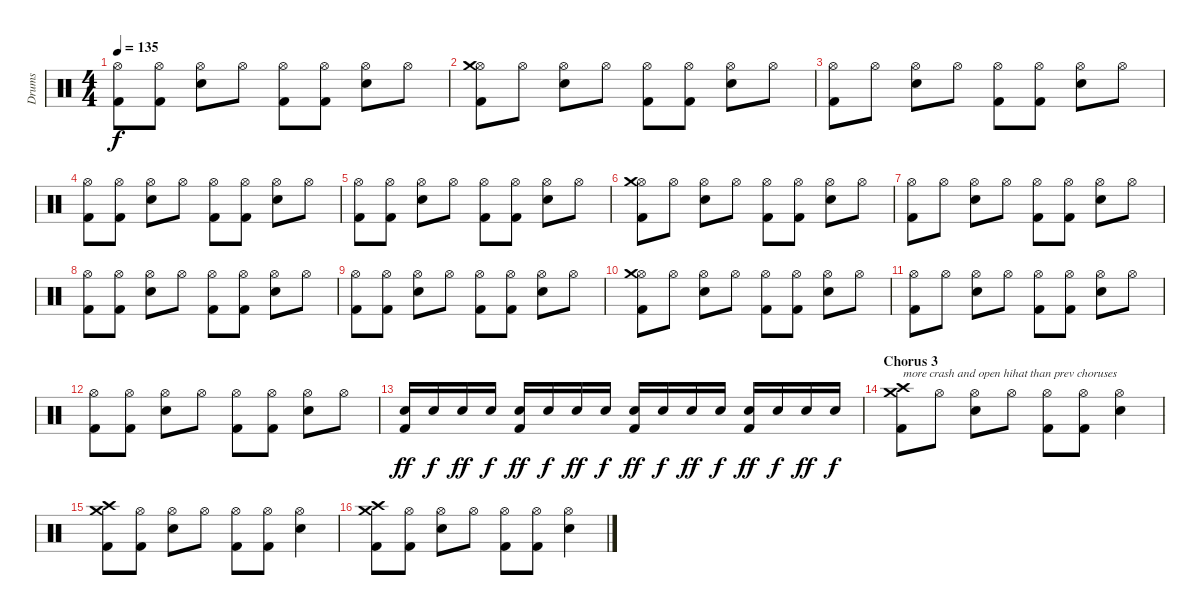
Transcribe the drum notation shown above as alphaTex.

\track ("Drums" "Drums") {instrument percussion}
\staff {score}
\articulation defaults
\ts (4 4)
\tempo 135
\clef neutral
\ks c
("Hi-Hat (open)" "Kick (hit) 2").8{dy f} ("Hi-Hat (open)" "Kick (hit) 2").8 ("Hi-Hat (open)" "Snare (hit) 2").8 "Hi-Hat (open)".8 ("Hi-Hat (open)" "Kick (hit) 2").8 ("Hi-Hat (open)" "Kick (hit) 2").8 ("Hi-Hat (open)" "Snare (hit) 2").8 "Hi-Hat (open)".8 |
("Hi-Hat (open)" "Crash medium (hit)" "Kick (hit) 2").8 "Hi-Hat (open)".8 ("Hi-Hat (open)" "Snare (hit) 2").8 "Hi-Hat (open)".8 ("Hi-Hat (open)" "Kick (hit) 2").8 ("Hi-Hat (open)" "Kick (hit) 2").8 ("Hi-Hat (open)" "Snare (hit) 2").8 "Hi-Hat (open)".8 |
("Hi-Hat (open)" "Kick (hit) 2").8 "Hi-Hat (open)".8 ("Hi-Hat (open)" "Snare (hit) 2").8 "Hi-Hat (open)".8 ("Hi-Hat (open)" "Kick (hit) 2").8 ("Hi-Hat (open)" "Kick (hit) 2").8 ("Hi-Hat (open)" "Snare (hit) 2").8 "Hi-Hat (open)".8 |
("Hi-Hat (open)" "Kick (hit) 2").8 ("Hi-Hat (open)" "Kick (hit) 2").8 ("Hi-Hat (open)" "Snare (hit) 2").8 "Hi-Hat (open)".8 ("Hi-Hat (open)" "Kick (hit) 2").8 ("Hi-Hat (open)" "Kick (hit) 2").8 ("Hi-Hat (open)" "Snare (hit) 2").8 "Hi-Hat (open)".8 |
("Hi-Hat (open)" "Kick (hit) 2").8 ("Hi-Hat (open)" "Kick (hit) 2").8 ("Hi-Hat (open)" "Snare (hit) 2").8 "Hi-Hat (open)".8 ("Hi-Hat (open)" "Kick (hit) 2").8 ("Hi-Hat (open)" "Kick (hit) 2").8 ("Hi-Hat (open)" "Snare (hit) 2").8 "Hi-Hat (open)".8 |
("Hi-Hat (open)" "Crash medium (hit)" "Kick (hit) 2").8 "Hi-Hat (open)".8 ("Hi-Hat (open)" "Snare (hit) 2").8 "Hi-Hat (open)".8 ("Hi-Hat (open)" "Kick (hit) 2").8 ("Hi-Hat (open)" "Kick (hit) 2").8 ("Hi-Hat (open)" "Snare (hit) 2").8 "Hi-Hat (open)".8 |
("Hi-Hat (open)" "Kick (hit) 2").8 "Hi-Hat (open)".8 ("Hi-Hat (open)" "Snare (hit) 2").8 "Hi-Hat (open)".8 ("Hi-Hat (open)" "Kick (hit) 2").8 ("Hi-Hat (open)" "Kick (hit) 2").8 ("Hi-Hat (open)" "Snare (hit) 2").8 "Hi-Hat (open)".8 |
("Hi-Hat (open)" "Kick (hit) 2").8 ("Hi-Hat (open)" "Kick (hit) 2").8 ("Hi-Hat (open)" "Snare (hit) 2").8 "Hi-Hat (open)".8 ("Hi-Hat (open)" "Kick (hit) 2").8 ("Hi-Hat (open)" "Kick (hit) 2").8 ("Hi-Hat (open)" "Snare (hit) 2").8 "Hi-Hat (open)".8 |
("Hi-Hat (open)" "Kick (hit) 2").8 ("Hi-Hat (open)" "Kick (hit) 2").8 ("Hi-Hat (open)" "Snare (hit) 2").8 "Hi-Hat (open)".8 ("Hi-Hat (open)" "Kick (hit) 2").8 ("Hi-Hat (open)" "Kick (hit) 2").8 ("Hi-Hat (open)" "Snare (hit) 2").8 "Hi-Hat (open)".8 |
("Hi-Hat (open)" "Crash medium (hit)" "Kick (hit) 2").8 "Hi-Hat (open)".8 ("Hi-Hat (open)" "Snare (hit) 2").8 "Hi-Hat (open)".8 ("Hi-Hat (open)" "Kick (hit) 2").8 ("Hi-Hat (open)" "Kick (hit) 2").8 ("Hi-Hat (open)" "Snare (hit) 2").8 "Hi-Hat (open)".8 |
("Hi-Hat (open)" "Kick (hit) 2").8 "Hi-Hat (open)".8 ("Hi-Hat (open)" "Snare (hit) 2").8 "Hi-Hat (open)".8 ("Hi-Hat (open)" "Kick (hit) 2").8 ("Hi-Hat (open)" "Kick (hit) 2").8 ("Hi-Hat (open)" "Snare (hit) 2").8 "Hi-Hat (open)".8 |
("Hi-Hat (open)" "Kick (hit) 2").8 ("Hi-Hat (open)" "Kick (hit) 2").8 ("Hi-Hat (open)" "Snare (hit) 2").8 "Hi-Hat (open)".8 ("Hi-Hat (open)" "Kick (hit) 2").8 ("Hi-Hat (open)" "Kick (hit) 2").8 ("Hi-Hat (open)" "Snare (hit) 2").8 "Hi-Hat (open)".8 |
("Snare (hit) 2" "Kick (hit) 2").16{dy ff} "Snare (hit) 2".16{dy f} "Snare (hit) 2".16{dy ff} "Snare (hit) 2".16{dy f} ("Snare (hit) 2" "Kick (hit) 2").16{dy ff} "Snare (hit) 2".16{dy f} "Snare (hit) 2".16{dy ff} "Snare (hit) 2".16{dy f} ("Snare (hit) 2" "Kick (hit) 2").16{dy ff} "Snare (hit) 2".16{dy f} "Snare (hit) 2".16{dy ff} "Snare (hit) 2".16{dy f} ("Snare (hit) 2" "Kick (hit) 2").16{dy ff} "Snare (hit) 2".16{dy f} "Snare (hit) 2".16{dy ff} "Snare (hit) 2".16{dy f} |
\section ("" "Chorus 3 ")
("Crash medium (hit)" "Crash high (hit)" "Kick (hit) 2").8{txt "more crash and open hihat than prev choruses"} "Hi-Hat (open)".8 ("Hi-Hat (open)" "Snare (hit) 2").8 "Hi-Hat (open)".8 ("Hi-Hat (open)" "Kick (hit) 2").8 ("Hi-Hat (open)" "Kick (hit) 2").8 ("Hi-Hat (open)" "Snare (hit) 2").4 |
("Crash high (hit)" "Crash medium (hit)" "Kick (hit) 2").8 ("Hi-Hat (open)" "Kick (hit) 2").8 ("Hi-Hat (open)" "Snare (hit) 2").8 "Hi-Hat (open)".8 ("Hi-Hat (open)" "Kick (hit) 2").8 ("Hi-Hat (open)" "Kick (hit) 2").8 ("Hi-Hat (open)" "Snare (hit) 2").4 |
("Crash medium (hit)" "Crash high (hit)" "Kick (hit) 2").8 ("Hi-Hat (open)" "Kick (hit) 2").8 ("Hi-Hat (open)" "Snare (hit) 2").8 "Hi-Hat (open)".8 ("Hi-Hat (open)" "Kick (hit) 2").8 ("Hi-Hat (open)" "Kick (hit) 2").8 ("Hi-Hat (open)" "Snare (hit) 2").4
